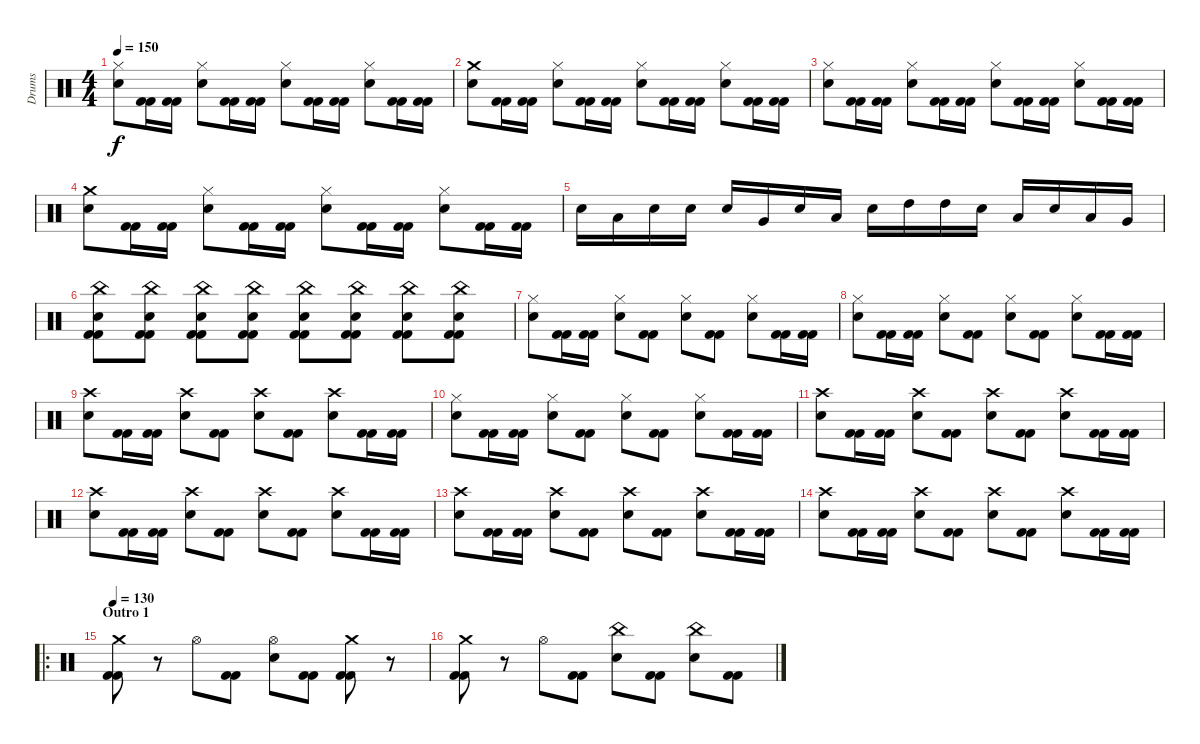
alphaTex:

\track ("Drums" "Drums") {instrument percussion}
\staff {score}
\articulation defaults
\ts (4 4)
\tempo 150
\clef neutral
\ks c
("Hi-Hat (closed)" "Electric Snare (hit)").8{dy f} ("Kick (hit) 2" "Kick (hit) 2").16 ("Kick (hit) 2" "Kick (hit) 2").16 ("Electric Snare (hit)" "Hi-Hat (closed)").8 ("Kick (hit) 2" "Kick (hit) 2").16 ("Kick (hit) 2" "Kick (hit) 2").16 ("Electric Snare (hit)" "Hi-Hat (closed)").8 ("Kick (hit) 2" "Kick (hit) 2").16 ("Kick (hit) 2" "Kick (hit) 2").16 ("Hi-Hat (closed)" "Electric Snare (hit)").8 ("Kick (hit) 2" "Kick (hit) 2").16 ("Kick (hit) 2" "Kick (hit) 2").16 |
("Crash medium (hit)" "Electric Snare (hit)").8 ("Kick (hit) 2" "Kick (hit) 2").16 ("Kick (hit) 2" "Kick (hit) 2").16 ("Electric Snare (hit)" "Hi-Hat (closed)").8 ("Kick (hit) 2" "Kick (hit) 2").16 ("Kick (hit) 2" "Kick (hit) 2").16 ("Electric Snare (hit)" "Hi-Hat (closed)").8 ("Kick (hit) 2" "Kick (hit) 2").16 ("Kick (hit) 2" "Kick (hit) 2").16 ("Hi-Hat (closed)" "Electric Snare (hit)").8 ("Kick (hit) 2" "Kick (hit) 2").16 ("Kick (hit) 2" "Kick (hit) 2").16 |
("Hi-Hat (closed)" "Electric Snare (hit)").8 ("Kick (hit) 2" "Kick (hit) 2").16 ("Kick (hit) 2" "Kick (hit) 2").16 ("Electric Snare (hit)" "Hi-Hat (closed)").8 ("Kick (hit) 2" "Kick (hit) 2").16 ("Kick (hit) 2" "Kick (hit) 2").16 ("Electric Snare (hit)" "Hi-Hat (closed)").8 ("Kick (hit) 2" "Kick (hit) 2").16 ("Kick (hit) 2" "Kick (hit) 2").16 ("Hi-Hat (closed)" "Electric Snare (hit)").8 ("Kick (hit) 2" "Kick (hit) 2").16 ("Kick (hit) 2" "Kick (hit) 2").16 |
("Crash medium (hit)" "Electric Snare (hit)").8 ("Kick (hit) 2" "Kick (hit) 2").16 ("Kick (hit) 2" "Kick (hit) 2").16 ("Electric Snare (hit)" "Hi-Hat (closed)").8 ("Kick (hit) 2" "Kick (hit) 2").16 ("Kick (hit) 2" "Kick (hit) 2").16 ("Electric Snare (hit)" "Hi-Hat (closed)").8 ("Kick (hit) 2" "Kick (hit) 2").16 ("Kick (hit) 2" "Kick (hit) 2").16 ("Hi-Hat (closed)" "Electric Snare (hit)").8 ("Kick (hit) 2" "Kick (hit) 2").16 ("Kick (hit) 2" "Kick (hit) 2").16 |
"Electric Snare (hit)".16 "Low Tom (hit)".16 "Electric Snare (hit)".16 "Electric Snare (hit)".16 "Electric Snare (hit)".16 "Very Low Tom (hit)".16 "Electric Snare (hit)".16 "Low Floor Tom (hit)".16 "Electric Snare (hit)".16 "High Tom (hit)".16 "High Tom (hit)".16 "Electric Snare (hit)".16 "Low Tom (hit)".16 "Electric Snare (hit)".16 "Low Tom (hit)".16 "Very Low Tom (hit)".16 |
("China (hit)" "Electric Snare (hit)" "Kick (hit) 2" "Kick (hit) 2").8 ("China (hit)" "Electric Snare (hit)" "Kick (hit) 2" "Kick (hit) 2").8 ("China (hit)" "Electric Snare (hit)" "Kick (hit) 2" "Kick (hit) 2").8 ("Kick (hit) 2" "Kick (hit) 2" "Electric Snare (hit)" "China (hit)").8 ("China (hit)" "Electric Snare (hit)" "Kick (hit) 2" "Kick (hit) 2").8 ("Kick (hit) 2" "Kick (hit) 2" "Electric Snare (hit)" "China (hit)").8 ("China (hit)" "Electric Snare (hit)" "Kick (hit) 2" "Kick (hit) 2").8 ("Kick (hit) 2" "Kick (hit) 2" "Electric Snare (hit)" "China (hit)").8 |
("Hi-Hat (closed)" "Electric Snare (hit)").8 ("Kick (hit) 2" "Kick (hit) 2").16 ("Kick (hit) 2" "Kick (hit) 2").16 ("Electric Snare (hit)" "Hi-Hat (closed)").8 ("Kick (hit) 2" "Kick (hit) 2").8 ("Electric Snare (hit)" "Hi-Hat (closed)").8 ("Kick (hit) 2" "Kick (hit) 2").8 ("Electric Snare (hit)" "Hi-Hat (closed)").8 ("Kick (hit) 2" "Kick (hit) 2").16 ("Kick (hit) 2" "Kick (hit) 2").16 |
("Hi-Hat (closed)" "Electric Snare (hit)").8 ("Kick (hit) 2" "Kick (hit) 2").16 ("Kick (hit) 2" "Kick (hit) 2").16 ("Electric Snare (hit)" "Hi-Hat (closed)").8 ("Kick (hit) 2" "Kick (hit) 2").8 ("Electric Snare (hit)" "Hi-Hat (closed)").8 ("Kick (hit) 2" "Kick (hit) 2").8 ("Electric Snare (hit)" "Hi-Hat (closed)").8 ("Kick (hit) 2" "Kick (hit) 2").16 ("Kick (hit) 2" "Kick (hit) 2").16 |
("Crash high (hit)" "Electric Snare (hit)").8 ("Kick (hit) 2" "Kick (hit) 2").16 ("Kick (hit) 2" "Kick (hit) 2").16 ("Electric Snare (hit)" "Crash high (hit)").8 ("Kick (hit) 2" "Kick (hit) 2").8 ("Electric Snare (hit)" "Crash high (hit)").8 ("Kick (hit) 2" "Kick (hit) 2").8 ("Electric Snare (hit)" "Crash high (hit)").8 ("Kick (hit) 2" "Kick (hit) 2").16 ("Kick (hit) 2" "Kick (hit) 2").16 |
("Hi-Hat (closed)" "Electric Snare (hit)").8 ("Kick (hit) 2" "Kick (hit) 2").16 ("Kick (hit) 2" "Kick (hit) 2").16 ("Electric Snare (hit)" "Hi-Hat (closed)").8 ("Kick (hit) 2" "Kick (hit) 2").8 ("Electric Snare (hit)" "Hi-Hat (closed)").8 ("Kick (hit) 2" "Kick (hit) 2").8 ("Electric Snare (hit)" "Hi-Hat (closed)").8 ("Kick (hit) 2" "Kick (hit) 2").16 ("Kick (hit) 2" "Kick (hit) 2").16 |
("Crash high (hit)" "Electric Snare (hit)").8 ("Kick (hit) 2" "Kick (hit) 2").16 ("Kick (hit) 2" "Kick (hit) 2").16 ("Electric Snare (hit)" "Crash high (hit)").8 ("Kick (hit) 2" "Kick (hit) 2").8 ("Electric Snare (hit)" "Crash high (hit)").8 ("Kick (hit) 2" "Kick (hit) 2").8 ("Electric Snare (hit)" "Crash high (hit)").8 ("Kick (hit) 2" "Kick (hit) 2").16 ("Kick (hit) 2" "Kick (hit) 2").16 |
("Crash high (hit)" "Electric Snare (hit)").8 ("Kick (hit) 2" "Kick (hit) 2").16 ("Kick (hit) 2" "Kick (hit) 2").16 ("Electric Snare (hit)" "Crash high (hit)").8 ("Kick (hit) 2" "Kick (hit) 2").8 ("Electric Snare (hit)" "Crash high (hit)").8 ("Kick (hit) 2" "Kick (hit) 2").8 ("Electric Snare (hit)" "Crash high (hit)").8 ("Kick (hit) 2" "Kick (hit) 2").16 ("Kick (hit) 2" "Kick (hit) 2").16 |
("Crash high (hit)" "Electric Snare (hit)").8 ("Kick (hit) 2" "Kick (hit) 2").16 ("Kick (hit) 2" "Kick (hit) 2").16 ("Electric Snare (hit)" "Crash high (hit)").8 ("Kick (hit) 2" "Kick (hit) 2").8 ("Electric Snare (hit)" "Crash high (hit)").8 ("Kick (hit) 2" "Kick (hit) 2").8 ("Electric Snare (hit)" "Crash high (hit)").8 ("Kick (hit) 2" "Kick (hit) 2").16 ("Kick (hit) 2" "Kick (hit) 2").16 |
("Crash high (hit)" "Electric Snare (hit)").8 ("Kick (hit) 2" "Kick (hit) 2").16 ("Kick (hit) 2" "Kick (hit) 2").16 ("Electric Snare (hit)" "Crash high (hit)").8 ("Kick (hit) 2" "Kick (hit) 2").8 ("Electric Snare (hit)" "Crash high (hit)").8 ("Kick (hit) 2" "Kick (hit) 2").8 ("Electric Snare (hit)" "Crash high (hit)").8 ("Kick (hit) 2" "Kick (hit) 2").16 ("Kick (hit) 2" "Kick (hit) 2").16 |
\ro
\section ("" "Outro 1")
\tempo 130
("Crash medium (hit)" "Kick (hit) 2" "Kick (hit) 2").8 r.8 "Hi-Hat (open)".8 ("Kick (hit) 2" "Kick (hit) 2").8 ("Electric Snare (hit)" "Hi-Hat (open)").8 ("Kick (hit) 2" "Kick (hit) 2").8 ("Crash medium (hit)" "Kick (hit) 2" "Kick (hit) 2").8 r.8 |
("Crash medium (hit)" "Kick (hit) 2" "Kick (hit) 2").8 r.8 "Hi-Hat (open)".8 ("Kick (hit) 2" "Kick (hit) 2").8 ("Electric Snare (hit)" "China (hit)").8 ("Kick (hit) 2" "Kick (hit) 2").8 ("China (hit)" "Electric Snare (hit)").8 ("Kick (hit) 2" "Kick (hit) 2").8
